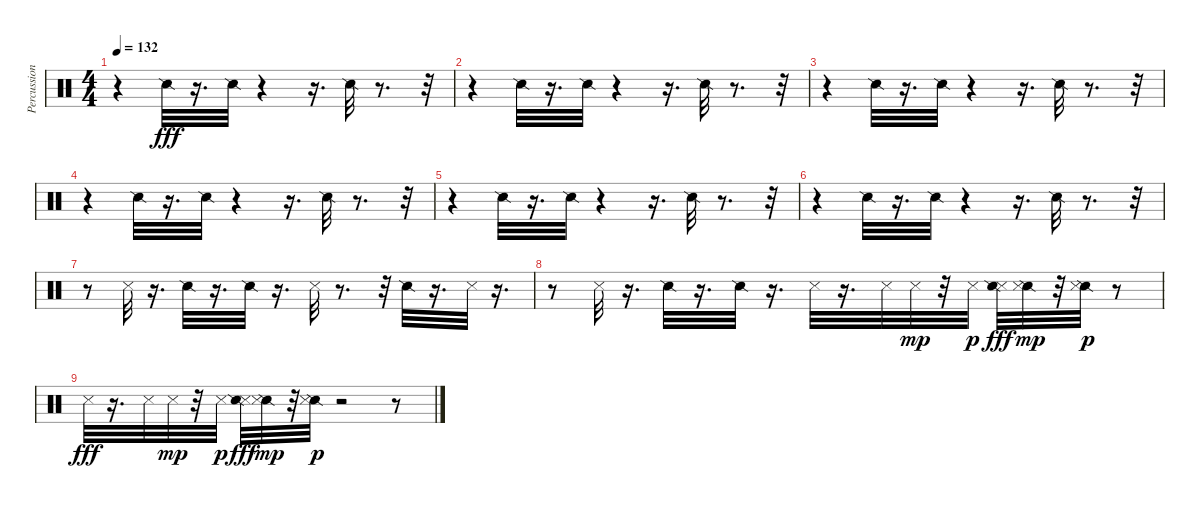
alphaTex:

\track ("Percussion 1" "Percussion") {instrument percussion}
\staff {score}
\articulation defaults
\ts (4 4)
\tempo 132
\clef neutral
\ks c
r.4{dy fff} "Snare (side stick) 2".32 r.16{d} "Snare (side stick) 2".32 r.4 r.16{d} "Snare (side stick) 2".32 r.8{d} r.32 |
r.4 "Snare (side stick) 2".32 r.16{d} "Snare (side stick) 2".32 r.4 r.16{d} "Snare (side stick) 2".32 r.8{d} r.32 |
r.4 "Snare (side stick) 2".32 r.16{d} "Snare (side stick) 2".32 r.4 r.16{d} "Snare (side stick) 2".32 r.8{d} r.32 |
r.4 "Snare (side stick) 2".32 r.16{d} "Snare (side stick) 2".32 r.4 r.16{d} "Snare (side stick) 2".32 r.8{d} r.32 |
r.4 "Snare (side stick) 2".32 r.16{d} "Snare (side stick) 2".32 r.4 r.16{d} "Snare (side stick) 2".32 r.8{d} r.32 |
r.4 "Snare (side stick) 2".32 r.16{d} "Snare (side stick) 2".32 r.4 r.16{d} "Snare (side stick) 2".32 r.8{d} r.32 |
r.8 "Snare (side stick) 3".32 r.16{d} "Snare (side stick) 2".32 r.16{d} "Snare (side stick) 2".32 r.16{d} "Snare (side stick) 3".32 r.8{d} r.32 "Snare (side stick) 2".32 r.16{d} "Snare (side stick) 3".32 r.16{d} |
r.8 "Snare (side stick) 3".32 r.16{d} "Snare (side stick) 2".32 r.16{d} "Snare (side stick) 2".32 r.16{d} "Snare (side stick) 3".32 r.16{d} "Snare (side stick) 3".32 "Snare (side stick) 3".32{dy mp} r.32 "Snare (side stick) 3".32{dy p} ("Snare (side stick) 3" "Snare (side stick) 2").32{dy fff} ("Snare (side stick) 2" "Snare (side stick) 3").32{dy mp} r.32 ("Snare (side stick) 2" "Snare (side stick) 3").32{dy p} r.8 |
"Snare (side stick) 3".32{dy fff} r.16{d} "Snare (side stick) 3".32 "Snare (side stick) 3".32{dy mp} r.32 "Snare (side stick) 3".32{dy p} ("Snare (side stick) 3" "Snare (side stick) 2").32{dy fff} ("Snare (side stick) 2" "Snare (side stick) 3").32{dy mp} r.32 ("Snare (side stick) 2" "Snare (side stick) 3").32{dy p} r.2 r.8
